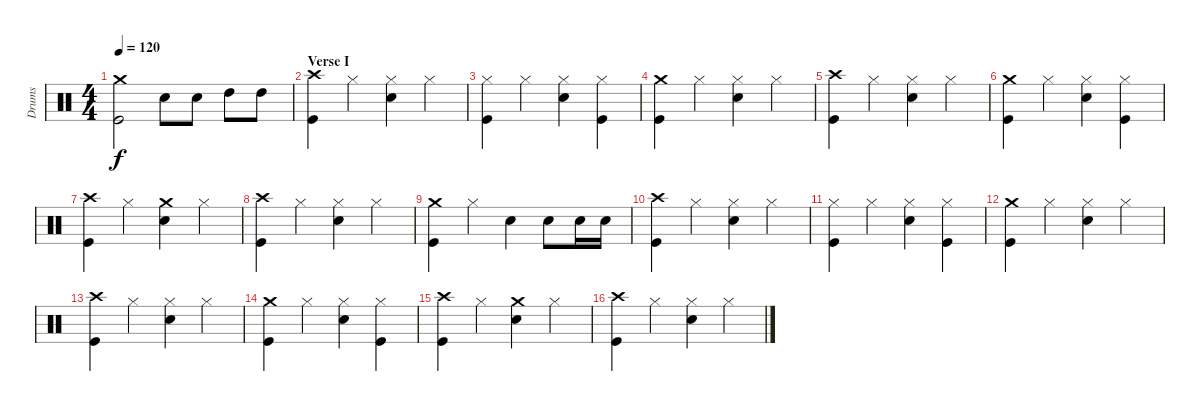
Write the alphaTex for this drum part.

\track ("Drums" "Drums") {instrument percussion}
\staff {score}
\articulation defaults
\ts (4 4)
\tempo 120
\clef neutral
\ks c
("Crash medium (hit)" "Kick (hit)").2{dy f} "Snare (hit) 2".8 "Snare (hit) 2".8 "High Tom (hit)".8 "High Tom (hit)".8 |
\section ("" "Verse I")
("Crash high (hit)" "Kick (hit)").4 "Hi-Hat (closed)".4 ("Hi-Hat (closed)" "Snare (hit) 2").4 "Hi-Hat (closed)".4 |
("Hi-Hat (closed)" "Kick (hit)").4 "Hi-Hat (closed)".4 ("Hi-Hat (closed)" "Snare (hit) 2").4 ("Hi-Hat (closed)" "Kick (hit)").4 |
("Crash medium (hit)" "Kick (hit)").4 "Hi-Hat (closed)".4 ("Hi-Hat (closed)" "Snare (hit) 2").4 "Hi-Hat (closed)".4 |
("Crash high (hit)" "Kick (hit)").4 "Hi-Hat (closed)".4 ("Hi-Hat (closed)" "Snare (hit) 2").4 "Hi-Hat (closed)".4 |
("Crash medium (hit)" "Kick (hit)").4 "Hi-Hat (closed)".4 ("Hi-Hat (closed)" "Snare (hit) 2").4 ("Hi-Hat (closed)" "Kick (hit)").4 |
("Crash high (hit)" "Kick (hit)").4 "Hi-Hat (closed)".4 ("Crash medium (hit)" "Snare (hit) 2").4 "Hi-Hat (closed)".4 |
("Crash high (hit)" "Kick (hit)").4 "Hi-Hat (closed)".4 ("Hi-Hat (closed)" "Snare (hit) 2").4 "Hi-Hat (closed)".4 |
("Crash medium (hit)" "Kick (hit)").4 "Hi-Hat (closed)".4 "Snare (hit) 2".4 "Snare (hit) 2".8 "Snare (hit) 2".16 "Snare (hit) 2".16 |
("Crash high (hit)" "Kick (hit)").4 "Hi-Hat (closed)".4 ("Hi-Hat (closed)" "Snare (hit) 2").4 "Hi-Hat (closed)".4 |
("Hi-Hat (closed)" "Kick (hit)").4 "Hi-Hat (closed)".4 ("Hi-Hat (closed)" "Snare (hit) 2").4 ("Hi-Hat (closed)" "Kick (hit)").4 |
("Crash medium (hit)" "Kick (hit)").4 "Hi-Hat (closed)".4 ("Hi-Hat (closed)" "Snare (hit) 2").4 "Hi-Hat (closed)".4 |
("Crash high (hit)" "Kick (hit)").4 "Hi-Hat (closed)".4 ("Hi-Hat (closed)" "Snare (hit) 2").4 "Hi-Hat (closed)".4 |
("Crash medium (hit)" "Kick (hit)").4 "Hi-Hat (closed)".4 ("Hi-Hat (closed)" "Snare (hit) 2").4 ("Hi-Hat (closed)" "Kick (hit)").4 |
("Crash high (hit)" "Kick (hit)").4 "Hi-Hat (closed)".4 ("Crash medium (hit)" "Snare (hit) 2").4 "Hi-Hat (closed)".4 |
("Crash high (hit)" "Kick (hit)").4 "Hi-Hat (closed)".4 ("Hi-Hat (closed)" "Snare (hit) 2").4 "Hi-Hat (closed)".4
